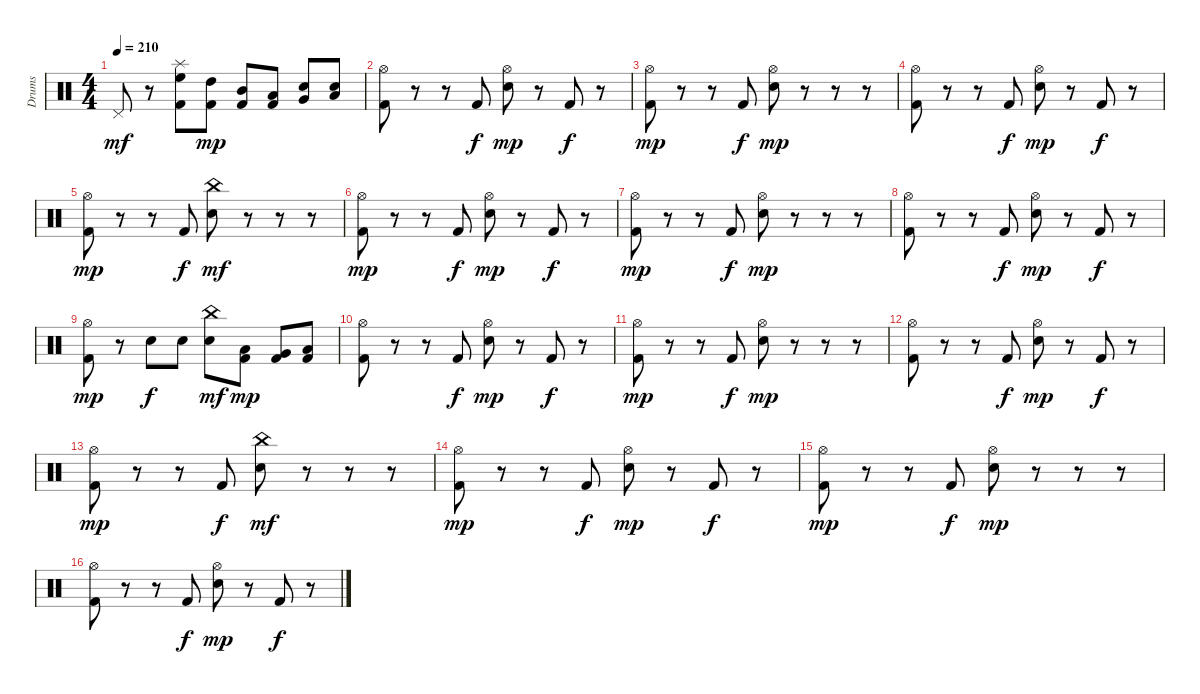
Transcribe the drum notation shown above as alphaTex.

\track ("Drums" "Drums") {instrument percussion}
\staff {score}
\articulation defaults
\ts (4 4)
\tempo 210
\clef neutral
\ks c "Pedal Hi-Hat (hit)".8{dy mf}
r.8 ("Kick (hit) 2" "High Floor Tom (hit)" "Splash (hit)").8 ("Kick (hit) 2" "High Tom (hit)").8{dy mp} ("Kick (hit) 2" "Mid Tom (hit)").8 ("Kick (hit) 2" "Low Tom (hit)").8 ("Snare (hit) 2" "Very Low Tom (hit)").8 ("Snare (hit) 2" "Low Floor Tom (hit)").8 |
("Kick (hit) 2" "Hi-Hat (open)").8 r.8 r.8 "Kick (hit) 2".8{dy f} ("Snare (hit) 2" "Hi-Hat (open)").8{dy mp} r.8 "Kick (hit) 2".8{dy f} r.8 |
("Kick (hit) 2" "Hi-Hat (open)").8{dy mp} r.8 r.8 "Kick (hit) 2".8{dy f} ("Snare (hit) 2" "Hi-Hat (open)").8{dy mp} r.8 r.8 r.8 |
("Kick (hit) 2" "Hi-Hat (open)").8 r.8 r.8 "Kick (hit) 2".8{dy f} ("Snare (hit) 2" "Hi-Hat (open)").8{dy mp} r.8 "Kick (hit) 2".8{dy f} r.8 |
("Kick (hit) 2" "Hi-Hat (open)").8{dy mp} r.8 r.8 "Kick (hit) 2".8{dy f} ("Snare (hit) 2" "China (hit)").8{dy mf} r.8 r.8 r.8 |
("Kick (hit) 2" "Hi-Hat (open)").8{dy mp} r.8 r.8 "Kick (hit) 2".8{dy f} ("Snare (hit) 2" "Hi-Hat (open)").8{dy mp} r.8 "Kick (hit) 2".8{dy f} r.8 |
("Kick (hit) 2" "Hi-Hat (open)").8{dy mp} r.8 r.8 "Kick (hit) 2".8{dy f} ("Snare (hit) 2" "Hi-Hat (open)").8{dy mp} r.8 r.8 r.8 |
("Kick (hit) 2" "Hi-Hat (open)").8 r.8 r.8 "Kick (hit) 2".8{dy f} ("Snare (hit) 2" "Hi-Hat (open)").8{dy mp} r.8 "Kick (hit) 2".8{dy f} r.8 |
("Kick (hit) 2" "Hi-Hat (open)").8{dy mp} r.8 "Snare (hit) 2".8{dy f} "Snare (hit) 2".8 ("Snare (hit) 2" "China (hit)").8{dy mf} ("Kick (hit) 2" "Low Tom (hit)").8{dy mp} ("Kick (hit) 2" "Very Low Tom (hit)").8 ("Kick (hit) 2" "Low Floor Tom (hit)").8 |
("Kick (hit) 2" "Hi-Hat (open)").8 r.8 r.8 "Kick (hit) 2".8{dy f} ("Snare (hit) 2" "Hi-Hat (open)").8{dy mp} r.8 "Kick (hit) 2".8{dy f} r.8 |
("Kick (hit) 2" "Hi-Hat (open)").8{dy mp} r.8 r.8 "Kick (hit) 2".8{dy f} ("Snare (hit) 2" "Hi-Hat (open)").8{dy mp} r.8 r.8 r.8 |
("Kick (hit) 2" "Hi-Hat (open)").8 r.8 r.8 "Kick (hit) 2".8{dy f} ("Snare (hit) 2" "Hi-Hat (open)").8{dy mp} r.8 "Kick (hit) 2".8{dy f} r.8 |
("Kick (hit) 2" "Hi-Hat (open)").8{dy mp} r.8 r.8 "Kick (hit) 2".8{dy f} ("Snare (hit) 2" "China (hit)").8{dy mf} r.8 r.8 r.8 |
("Kick (hit) 2" "Hi-Hat (open)").8{dy mp} r.8 r.8 "Kick (hit) 2".8{dy f} ("Snare (hit) 2" "Hi-Hat (open)").8{dy mp} r.8 "Kick (hit) 2".8{dy f} r.8 |
("Kick (hit) 2" "Hi-Hat (open)").8{dy mp} r.8 r.8 "Kick (hit) 2".8{dy f} ("Snare (hit) 2" "Hi-Hat (open)").8{dy mp} r.8 r.8 r.8 |
("Kick (hit) 2" "Hi-Hat (open)").8 r.8 r.8 "Kick (hit) 2".8{dy f} ("Snare (hit) 2" "Hi-Hat (open)").8{dy mp} r.8 "Kick (hit) 2".8{dy f} r.8
